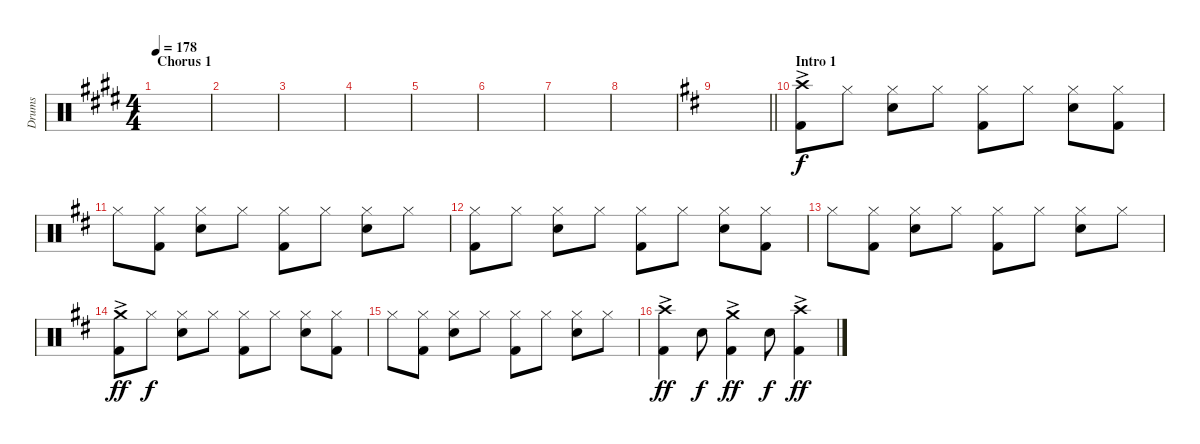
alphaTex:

\track ("Drums" "Drums") {instrument percussion}
\staff {score}
\articulation defaults
\ts (4 4)
\section ("" "Chorus 1")
\tempo 178
\clef neutral
\ks e
|
|
|
|
|
|
|
|
\barLineRight lightlight
\ks d
|
\section ("" "Intro 1")
("Crash high (hit)"{ac} "Kick (hit) 2").8 "Hi-Hat (closed)".8{dy f} ("Hi-Hat (closed)" "Electric Snare (hit)").8 "Hi-Hat (closed)".8 ("Hi-Hat (closed)" "Kick (hit) 2").8 "Hi-Hat (closed)".8 ("Hi-Hat (closed)" "Electric Snare (hit)").8 ("Hi-Hat (closed)" "Kick (hit) 2").8 |
"Hi-Hat (closed)".8 ("Hi-Hat (closed)" "Kick (hit) 2").8 ("Hi-Hat (closed)" "Electric Snare (hit)").8 "Hi-Hat (closed)".8 ("Hi-Hat (closed)" "Kick (hit) 2").8 "Hi-Hat (closed)".8 ("Hi-Hat (closed)" "Electric Snare (hit)").8 "Hi-Hat (closed)".8 |
("Hi-Hat (closed)" "Kick (hit) 2").8 "Hi-Hat (closed)".8 ("Hi-Hat (closed)" "Electric Snare (hit)").8 "Hi-Hat (closed)".8 ("Hi-Hat (closed)" "Kick (hit) 2").8 "Hi-Hat (closed)".8 ("Hi-Hat (closed)" "Electric Snare (hit)").8 ("Hi-Hat (closed)" "Kick (hit) 2").8 |
"Hi-Hat (closed)".8 ("Hi-Hat (closed)" "Kick (hit) 2").8 ("Hi-Hat (closed)" "Electric Snare (hit)").8 "Hi-Hat (closed)".8 ("Hi-Hat (closed)" "Kick (hit) 2").8 "Hi-Hat (closed)".8 ("Hi-Hat (closed)" "Electric Snare (hit)").8 "Hi-Hat (closed)".8 |
("Crash medium (hit)"{ac} "Kick (hit) 2").8{dy ff} "Hi-Hat (closed)".8{dy f} ("Hi-Hat (closed)" "Electric Snare (hit)").8 "Hi-Hat (closed)".8 ("Hi-Hat (closed)" "Kick (hit) 2").8 "Hi-Hat (closed)".8 ("Hi-Hat (closed)" "Electric Snare (hit)").8 ("Hi-Hat (closed)" "Kick (hit) 2").8 |
"Hi-Hat (closed)".8 ("Hi-Hat (closed)" "Kick (hit) 2").8 ("Hi-Hat (closed)" "Electric Snare (hit)").8 "Hi-Hat (closed)".8 ("Hi-Hat (closed)" "Kick (hit) 2").8 "Hi-Hat (closed)".8 ("Hi-Hat (closed)" "Electric Snare (hit)").8 "Hi-Hat (closed)".8 |
("Crash high (hit)"{ac} "Kick (hit) 2").4{dy ff} "Electric Snare (hit)".8{dy f} ("Crash medium (hit)"{ac} "Kick (hit) 2").4{dy ff} "Electric Snare (hit)".8{dy f} ("Crash high (hit)"{ac} "Kick (hit) 2").4{dy ff}
